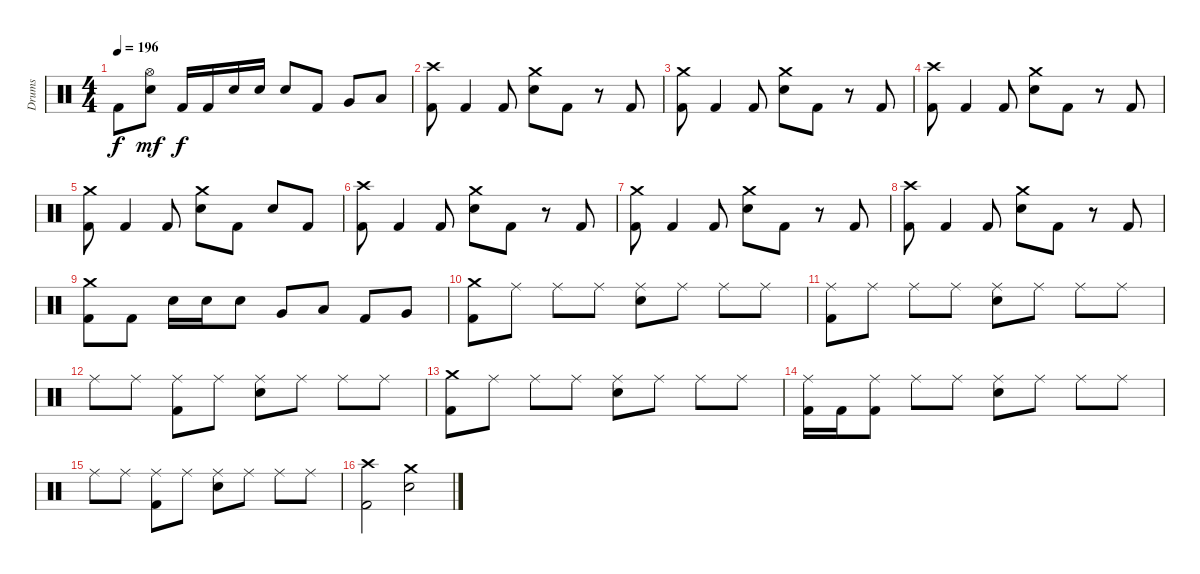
\track ("Drums" "Drums") {instrument percussion}
\staff
\articulation defaults
\ts (4 4)
\tempo 196
\clef neutral
\ks c "Kick (hit) 2".8{dy f}
("Hi-Hat (open)" "Electric Snare (hit)").8{dy mf} "Kick (hit) 2".16{dy f} "Kick (hit) 2".16 "Electric Snare (hit)".16 "Electric Snare (hit)".16 "Electric Snare (hit)".8 "Kick (hit) 2".8 "Very Low Tom (hit)".8 "Low Floor Tom (hit)".8 |
("Crash high (hit)" "Kick (hit) 2").8 "Kick (hit) 2".4 "Kick (hit) 2".8 ("Crash medium (hit)" "Electric Snare (hit)").8 "Kick (hit) 2".8 r.8 "Kick (hit) 2".8 |
("Crash medium (hit)" "Kick (hit) 2").8 "Kick (hit) 2".4 "Kick (hit) 2".8 ("Crash medium (hit)" "Electric Snare (hit)").8 "Kick (hit) 2".8 r.8 "Kick (hit) 2".8 |
("Crash high (hit)" "Kick (hit) 2").8 "Kick (hit) 2".4 "Kick (hit) 2".8 ("Crash medium (hit)" "Electric Snare (hit)").8 "Kick (hit) 2".8 r.8 "Kick (hit) 2".8 |
("Crash medium (hit)" "Kick (hit) 2").8 "Kick (hit) 2".4 "Kick (hit) 2".8 ("Crash medium (hit)" "Electric Snare (hit)").8 "Kick (hit) 2".8 "Electric Snare (hit)".8 "Kick (hit) 2".8 |
("Crash high (hit)" "Kick (hit) 2").8 "Kick (hit) 2".4 "Kick (hit) 2".8 ("Crash medium (hit)" "Electric Snare (hit)").8 "Kick (hit) 2".8 r.8 "Kick (hit) 2".8 |
("Crash medium (hit)" "Kick (hit) 2").8 "Kick (hit) 2".4 "Kick (hit) 2".8 ("Crash medium (hit)" "Electric Snare (hit)").8 "Kick (hit) 2".8 r.8 "Kick (hit) 2".8 |
("Crash high (hit)" "Kick (hit) 2").8 "Kick (hit) 2".4 "Kick (hit) 2".8 ("Crash medium (hit)" "Electric Snare (hit)").8 "Kick (hit) 2".8 r.8 "Kick (hit) 2".8 |
("Crash medium (hit)" "Kick (hit) 2").8 "Kick (hit) 2".8 "Electric Snare (hit)".16 "Electric Snare (hit)".16 "Electric Snare (hit)".8 "Very Low Tom (hit)".8 "Low Floor Tom (hit)".8 "Kick (hit) 2".8 "Very Low Tom (hit)".8 |
("Crash medium (hit)" "Kick (hit) 2").8 "Ride (middle)".8 "Ride (middle)".8 "Ride (middle)".8 ("Ride (middle)" "Electric Snare (hit)").8 "Ride (middle)".8 "Ride (middle)".8 "Ride (middle)".8 |
("Ride (middle)" "Kick (hit) 2").8 "Ride (middle)".8 "Ride (middle)".8 "Ride (middle)".8 ("Ride (middle)" "Electric Snare (hit)").8 "Ride (middle)".8 "Ride (middle)".8 "Ride (middle)".8 |
"Ride (middle)".8 "Ride (middle)".8 ("Ride (middle)" "Kick (hit) 2").8 "Ride (middle)".8 ("Ride (middle)" "Electric Snare (hit)").8 "Ride (middle)".8 "Ride (middle)".8 "Ride (middle)".8 |
("Crash medium (hit)" "Kick (hit) 2").8 "Ride (middle)".8 "Ride (middle)".8 "Ride (middle)".8 ("Ride (middle)" "Electric Snare (hit)").8 "Ride (middle)".8 "Ride (middle)".8 "Ride (middle)".8 |
("Ride (middle)" "Kick (hit) 2").16 "Kick (hit) 2".16 ("Ride (middle)" "Kick (hit) 2").8 "Ride (middle)".8 "Ride (middle)".8 ("Ride (middle)" "Electric Snare (hit)").8 "Ride (middle)".8 "Ride (middle)".8 "Ride (middle)".8 |
"Ride (middle)".8 "Ride (middle)".8 ("Ride (middle)" "Kick (hit) 2").8 "Ride (middle)".8 ("Ride (middle)" "Electric Snare (hit)").8 "Ride (middle)".8 "Ride (middle)".8 "Ride (middle)".8 |
("Crash high (hit)" "Kick (hit) 2").2 ("Crash medium (hit)" "Electric Snare (hit)").2
